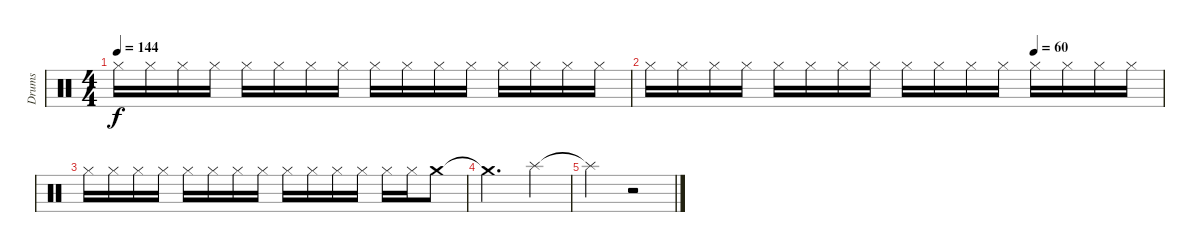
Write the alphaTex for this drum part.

\track ("Drums" "Drums") {instrument percussion}
\staff {score}
\articulation defaults
\ts (4 4)
\tempo 144
\clef neutral
\ks c "Hi-Hat (closed)".16{dy f} "Hi-Hat (closed)".16 "Hi-Hat (closed)".16 "Hi-Hat (closed)".16 "Hi-Hat (closed)".16 "Hi-Hat (closed)".16 "Hi-Hat (closed)".16 "Hi-Hat (closed)".16 "Hi-Hat (closed)".16 "Hi-Hat (closed)".16 "Hi-Hat (closed)".16 "Hi-Hat (closed)".16 "Hi-Hat (closed)".16 "Hi-Hat (closed)".16 "Hi-Hat (closed)".16 "Hi-Hat (closed)".16
|
\tempo (60 0.75)
"Hi-Hat (closed)".16 "Hi-Hat (closed)".16 "Hi-Hat (closed)".16 "Hi-Hat (closed)".16 "Hi-Hat (closed)".16 "Hi-Hat (closed)".16 "Hi-Hat (closed)".16 "Hi-Hat (closed)".16 "Hi-Hat (closed)".16 "Hi-Hat (closed)".16 "Hi-Hat (closed)".16 "Hi-Hat (closed)".16 "Hi-Hat (closed)".16 "Hi-Hat (closed)".16 "Hi-Hat (closed)".16 "Hi-Hat (closed)".16 |
"Hi-Hat (closed)".16 "Hi-Hat (closed)".16 "Hi-Hat (closed)".16 "Hi-Hat (closed)".16 "Hi-Hat (closed)".16 "Hi-Hat (closed)".16 "Hi-Hat (closed)".16 "Hi-Hat (closed)".16 "Hi-Hat (closed)".16 "Hi-Hat (closed)".16 "Hi-Hat (closed)".16 "Hi-Hat (closed)".16 "Hi-Hat (closed)".16 "Hi-Hat (closed)".16 "Crash medium (hit)".8 |
"Crash medium (hit)"{t}.2{d} "Splash (hit)".4 |
"Splash (hit)"{t}.2 r.2
